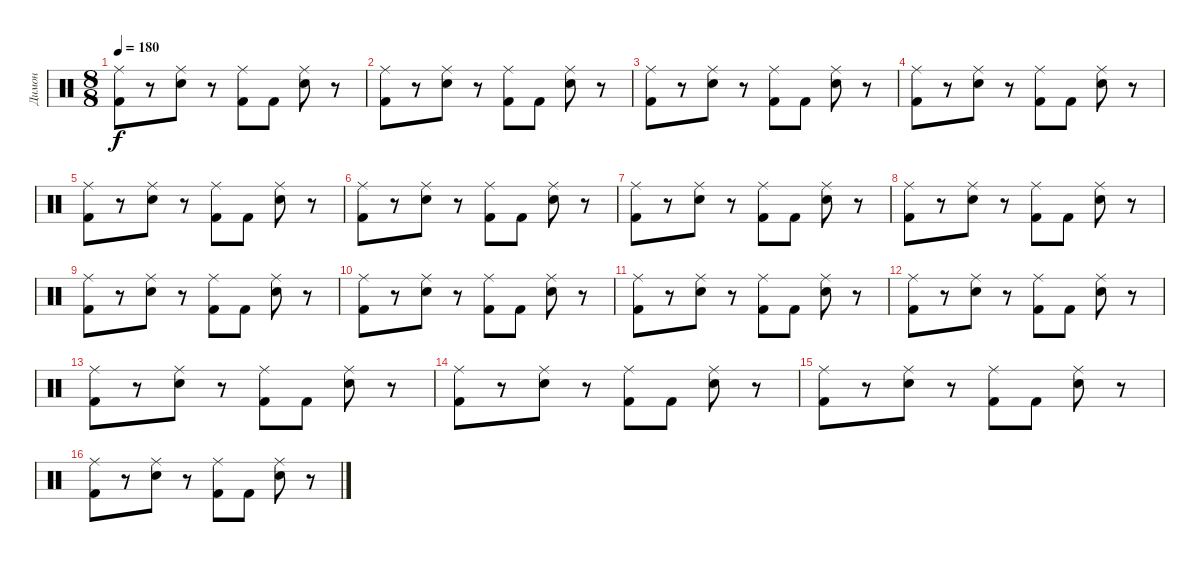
\track ("Димон" "Димон") {instrument percussion}
\staff {score}
\articulation defaults
\ts (8 8)
\tempo 180
\clef neutral
\ks c
("Kick (hit) 2" "Ride (middle)").8{dy f} r.8 ("Electric Snare (hit)" "Ride (middle)").8 r.8 ("Kick (hit) 2" "Ride (middle)").8 "Kick (hit) 2".8 ("Electric Snare (hit)" "Ride (middle)").8 r.8 |
("Kick (hit) 2" "Ride (middle)").8 r.8 ("Electric Snare (hit)" "Ride (middle)").8 r.8 ("Kick (hit) 2" "Ride (middle)").8 "Kick (hit) 2".8 ("Electric Snare (hit)" "Ride (middle)").8 r.8 |
("Kick (hit) 2" "Ride (middle)").8 r.8 ("Electric Snare (hit)" "Ride (middle)").8 r.8 ("Kick (hit) 2" "Ride (middle)").8 "Kick (hit) 2".8 ("Electric Snare (hit)" "Ride (middle)").8 r.8 |
("Kick (hit) 2" "Ride (middle)").8 r.8 ("Electric Snare (hit)" "Ride (middle)").8 r.8 ("Kick (hit) 2" "Ride (middle)").8 "Kick (hit) 2".8 ("Electric Snare (hit)" "Ride (middle)").8 r.8 |
("Kick (hit) 2" "Ride (middle)").8 r.8 ("Electric Snare (hit)" "Ride (middle)").8 r.8 ("Kick (hit) 2" "Ride (middle)").8 "Kick (hit) 2".8 ("Electric Snare (hit)" "Ride (middle)").8 r.8 |
("Kick (hit) 2" "Ride (middle)").8 r.8 ("Electric Snare (hit)" "Ride (middle)").8 r.8 ("Kick (hit) 2" "Ride (middle)").8 "Kick (hit) 2".8 ("Electric Snare (hit)" "Ride (middle)").8 r.8 |
("Kick (hit) 2" "Ride (middle)").8 r.8 ("Electric Snare (hit)" "Ride (middle)").8 r.8 ("Kick (hit) 2" "Ride (middle)").8 "Kick (hit) 2".8 ("Electric Snare (hit)" "Ride (middle)").8 r.8 |
("Kick (hit) 2" "Ride (middle)").8 r.8 ("Electric Snare (hit)" "Ride (middle)").8 r.8 ("Kick (hit) 2" "Ride (middle)").8 "Kick (hit) 2".8 ("Electric Snare (hit)" "Ride (middle)").8 r.8 |
("Kick (hit) 2" "Ride (middle)").8 r.8 ("Electric Snare (hit)" "Ride (middle)").8 r.8 ("Kick (hit) 2" "Ride (middle)").8 "Kick (hit) 2".8 ("Electric Snare (hit)" "Ride (middle)").8 r.8 |
("Kick (hit) 2" "Ride (middle)").8 r.8 ("Electric Snare (hit)" "Ride (middle)").8 r.8 ("Kick (hit) 2" "Ride (middle)").8 "Kick (hit) 2".8 ("Electric Snare (hit)" "Ride (middle)").8 r.8 |
("Kick (hit) 2" "Ride (middle)").8 r.8 ("Electric Snare (hit)" "Ride (middle)").8 r.8 ("Kick (hit) 2" "Ride (middle)").8 "Kick (hit) 2".8 ("Electric Snare (hit)" "Ride (middle)").8 r.8 |
("Kick (hit) 2" "Ride (middle)").8 r.8 ("Electric Snare (hit)" "Ride (middle)").8 r.8 ("Kick (hit) 2" "Ride (middle)").8 "Kick (hit) 2".8 ("Electric Snare (hit)" "Ride (middle)").8 r.8 |
("Kick (hit) 2" "Ride (middle)").8 r.8 ("Electric Snare (hit)" "Ride (middle)").8 r.8 ("Kick (hit) 2" "Ride (middle)").8 "Kick (hit) 2".8 ("Electric Snare (hit)" "Ride (middle)").8 r.8 |
("Kick (hit) 2" "Ride (middle)").8 r.8 ("Electric Snare (hit)" "Ride (middle)").8 r.8 ("Kick (hit) 2" "Ride (middle)").8 "Kick (hit) 2".8 ("Electric Snare (hit)" "Ride (middle)").8 r.8 |
("Kick (hit) 2" "Ride (middle)").8 r.8 ("Electric Snare (hit)" "Ride (middle)").8 r.8 ("Kick (hit) 2" "Ride (middle)").8 "Kick (hit) 2".8 ("Electric Snare (hit)" "Ride (middle)").8 r.8 |
("Kick (hit) 2" "Ride (middle)").8 r.8 ("Electric Snare (hit)" "Ride (middle)").8 r.8 ("Kick (hit) 2" "Ride (middle)").8 "Kick (hit) 2".8 ("Electric Snare (hit)" "Ride (middle)").8 r.8
